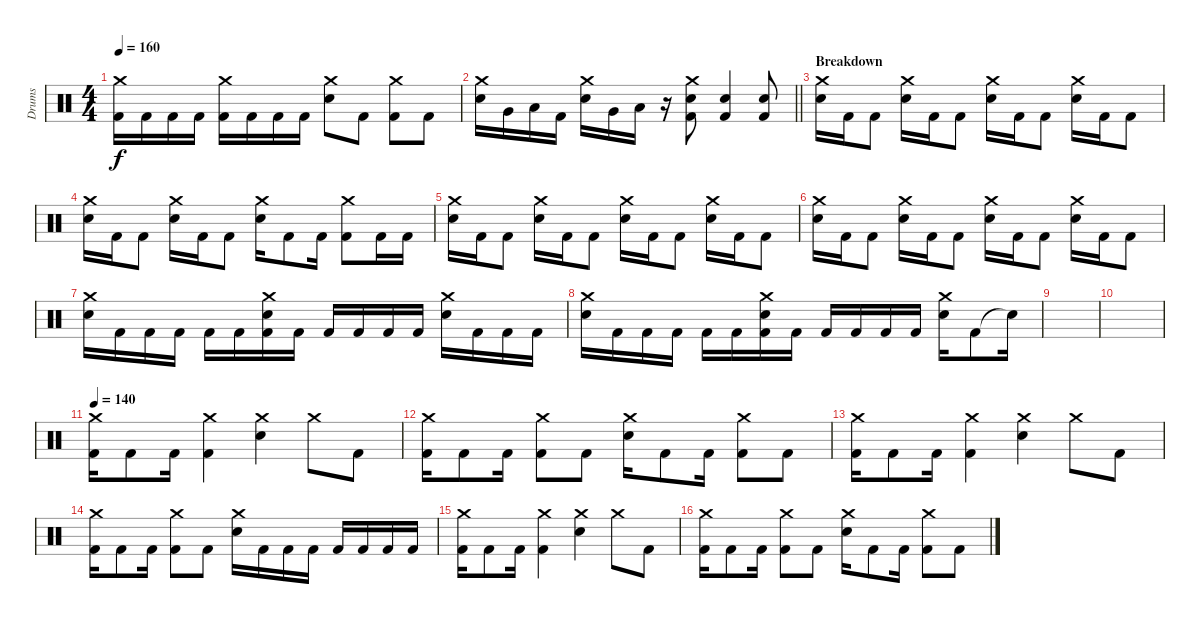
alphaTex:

\track ("Drums" "Drums") {instrument percussion}
\staff {score}
\articulation defaults
\ts (4 4)
\tempo 160
\clef neutral
\ks c
("Crash medium (hit)" "Kick (hit) 2").16{dy f} "Kick (hit) 2".16 "Kick (hit) 2".16 "Kick (hit) 2".16 ("Crash medium (hit)" "Kick (hit) 2").16 "Kick (hit) 2".16 "Kick (hit) 2".16 "Kick (hit) 2".16 ("Crash medium (hit)" "Snare (hit) 2").8 "Kick (hit) 2".8 ("Crash medium (hit)" "Kick (hit) 2").8 "Kick (hit) 2".8 |
\barLineRight lightlight
("Crash medium (hit)" "Snare (hit) 2").16 "Very Low Tom (hit)".16 "Low Floor Tom (hit)".16 "Kick (hit) 2".16 ("Crash medium (hit)" "Snare (hit) 2").16 "Very Low Tom (hit)".16 "Low Floor Tom (hit)".16 r.16 ("Crash medium (hit)" "Snare (hit) 2" "Kick (hit) 2").8 ("Snare (hit) 2" "Kick (hit) 2").4 ("Snare (hit) 2" "Kick (hit) 2").8 |
\section ("" "Breakdown")
("Crash medium (hit)" "Snare (hit) 2").16 "Kick (hit) 2".16 "Kick (hit) 2".8 ("Crash medium (hit)" "Snare (hit) 2").16 "Kick (hit) 2".16 "Kick (hit) 2".8 ("Crash medium (hit)" "Snare (hit) 2").16 "Kick (hit) 2".16 "Kick (hit) 2".8 ("Crash medium (hit)" "Snare (hit) 2").16 "Kick (hit) 2".16 "Kick (hit) 2".8 |
("Crash medium (hit)" "Snare (hit) 2").16 "Kick (hit) 2".16 "Kick (hit) 2".8 ("Crash medium (hit)" "Snare (hit) 2").16 "Kick (hit) 2".16 "Kick (hit) 2".8 ("Crash medium (hit)" "Snare (hit) 2").16 "Kick (hit) 2".8 "Kick (hit) 2".16 ("Crash medium (hit)" "Kick (hit) 2").8 "Kick (hit) 2".16 "Kick (hit) 2".16 |
("Crash medium (hit)" "Snare (hit) 2").16 "Kick (hit) 2".16 "Kick (hit) 2".8 ("Crash medium (hit)" "Snare (hit) 2").16 "Kick (hit) 2".16 "Kick (hit) 2".8 ("Crash medium (hit)" "Snare (hit) 2").16 "Kick (hit) 2".16 "Kick (hit) 2".8 ("Crash medium (hit)" "Snare (hit) 2").16 "Kick (hit) 2".16 "Kick (hit) 2".8 |
("Crash medium (hit)" "Snare (hit) 2").16 "Kick (hit) 2".16 "Kick (hit) 2".8 ("Crash medium (hit)" "Snare (hit) 2").16 "Kick (hit) 2".16 "Kick (hit) 2".8 ("Crash medium (hit)" "Snare (hit) 2").16 "Kick (hit) 2".16 "Kick (hit) 2".8 ("Crash medium (hit)" "Snare (hit) 2").16 "Kick (hit) 2".16 "Kick (hit) 2".8 |
("Crash medium (hit)" "Snare (hit) 2").16 "Kick (hit) 2".16 "Kick (hit) 2".16 "Kick (hit) 2".16 "Kick (hit) 2".16 "Kick (hit) 2".16 ("Crash medium (hit)" "Snare (hit) 2" "Kick (hit) 2").16 "Kick (hit) 2".16 "Kick (hit) 2".16 "Kick (hit) 2".16 "Kick (hit) 2".16 "Kick (hit) 2".16 ("Crash medium (hit)" "Snare (hit) 2").16 "Kick (hit) 2".16 "Kick (hit) 2".16 "Kick (hit) 2".16 |
("Crash medium (hit)" "Snare (hit) 2").16 "Kick (hit) 2".16 "Kick (hit) 2".16 "Kick (hit) 2".16 "Kick (hit) 2".16 "Kick (hit) 2".16 ("Crash medium (hit)" "Snare (hit) 2" "Kick (hit) 2").16 "Kick (hit) 2".16 "Kick (hit) 2".16 "Kick (hit) 2".16 "Kick (hit) 2".16 "Kick (hit) 2".16 ("Crash medium (hit)" "Snare (hit) 2").16 "Kick (hit) 2".8 "Snare (hit)"{t}.16 |
|
|
\tempo 140
("Crash medium (hit)" "Kick (hit) 2").16 "Kick (hit) 2".8 "Kick (hit) 2".16 ("Crash medium (hit)" "Kick (hit) 2").4 ("Crash medium (hit)" "Snare (hit) 2").4 "Crash medium (hit)".8 "Kick (hit) 2".8 |
("Crash medium (hit)" "Kick (hit) 2").16 "Kick (hit) 2".8 "Kick (hit) 2".16 ("Crash medium (hit)" "Kick (hit) 2").8 "Kick (hit) 2".8 ("Crash medium (hit)" "Snare (hit) 2").16 "Kick (hit) 2".8 "Kick (hit) 2".16 ("Crash medium (hit)" "Kick (hit) 2").8 "Kick (hit) 2".8 |
("Crash medium (hit)" "Kick (hit) 2").16 "Kick (hit) 2".8 "Kick (hit) 2".16 ("Crash medium (hit)" "Kick (hit) 2").4 ("Crash medium (hit)" "Snare (hit) 2").4 "Crash medium (hit)".8 "Kick (hit) 2".8 |
("Crash medium (hit)" "Kick (hit) 2").16 "Kick (hit) 2".8 "Kick (hit) 2".16 ("Crash medium (hit)" "Kick (hit) 2").8 "Kick (hit) 2".8 ("Crash medium (hit)" "Snare (hit) 2").16 "Kick (hit) 2".16 "Kick (hit) 2".16 "Kick (hit) 2".16 "Kick (hit) 2".16 "Kick (hit) 2".16 "Kick (hit) 2".16 "Kick (hit) 2".16 |
("Crash medium (hit)" "Kick (hit) 2").16 "Kick (hit) 2".8 "Kick (hit) 2".16 ("Crash medium (hit)" "Kick (hit) 2").4 ("Crash medium (hit)" "Snare (hit) 2").4 "Crash medium (hit)".8 "Kick (hit) 2".8 |
("Crash medium (hit)" "Kick (hit) 2").16 "Kick (hit) 2".8 "Kick (hit) 2".16 ("Crash medium (hit)" "Kick (hit) 2").8 "Kick (hit) 2".8 ("Crash medium (hit)" "Snare (hit) 2").16 "Kick (hit) 2".8 "Kick (hit) 2".16 ("Crash medium (hit)" "Kick (hit) 2").8 "Kick (hit) 2".8
